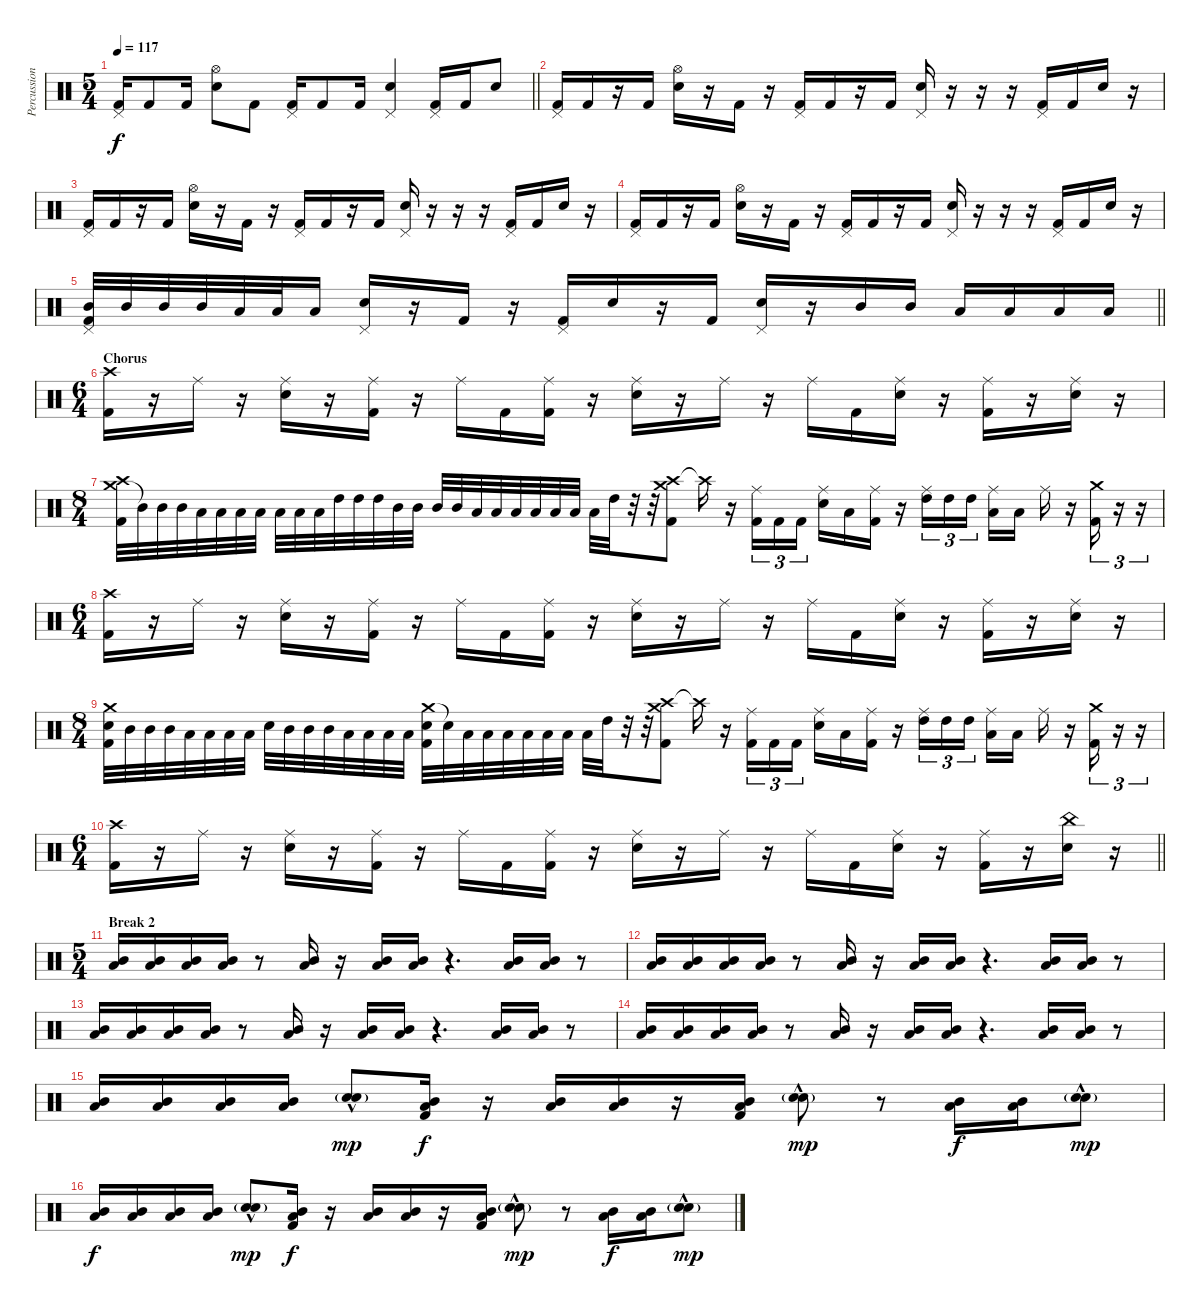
\track ("Percussion" "Percussion") {instrument percussion}
\staff {score}
\articulation defaults
\ts (5 4)
\tempo 117
\clef neutral
\barLineRight lightlight
\ks c
("Pedal Hi-Hat (hit)" "Kick (hit) 2").16{dy f} "Kick (hit) 2".8 "Kick (hit) 2".16 ("Hi-Hat (open)" "Electric Snare (hit)").8 "Kick (hit) 2".8 ("Pedal Hi-Hat (hit)" "Kick (hit) 2").16 "Kick (hit) 2".8 "Kick (hit) 2".16 ("Pedal Hi-Hat (hit)" "Electric Snare (hit)").4 ("Pedal Hi-Hat (hit)" "Kick (hit) 2").16 "Kick (hit) 2".16 "Electric Snare (hit)".8 |
("Pedal Hi-Hat (hit)" "Kick (hit) 2").16 "Kick (hit) 2".16 r.16 "Kick (hit) 2".16 ("Hi-Hat (open)" "Electric Snare (hit)").16 r.16 "Kick (hit) 2".16 r.16 ("Pedal Hi-Hat (hit)" "Kick (hit) 2").16 "Kick (hit) 2".16 r.16 "Kick (hit) 2".16 ("Pedal Hi-Hat (hit)" "Electric Snare (hit)").16 r.16 r.16 r.16 ("Pedal Hi-Hat (hit)" "Kick (hit) 2").16 "Kick (hit) 2".16 "Electric Snare (hit)".16 r.16 |
("Pedal Hi-Hat (hit)" "Kick (hit) 2").16 "Kick (hit) 2".16 r.16 "Kick (hit) 2".16 ("Hi-Hat (open)" "Electric Snare (hit)").16 r.16 "Kick (hit) 2".16 r.16 ("Pedal Hi-Hat (hit)" "Kick (hit) 2").16 "Kick (hit) 2".16 r.16 "Kick (hit) 2".16 ("Pedal Hi-Hat (hit)" "Electric Snare (hit)").16 r.16 r.16 r.16 ("Pedal Hi-Hat (hit)" "Kick (hit) 2").16 "Kick (hit) 2".16 "Electric Snare (hit)".16 r.16 |
("Pedal Hi-Hat (hit)" "Kick (hit) 2").16 "Kick (hit) 2".16 r.16 "Kick (hit) 2".16 ("Hi-Hat (open)" "Electric Snare (hit)").16 r.16 "Kick (hit) 2".16 r.16 ("Pedal Hi-Hat (hit)" "Kick (hit) 2").16 "Kick (hit) 2".16 r.16 "Kick (hit) 2".16 ("Pedal Hi-Hat (hit)" "Electric Snare (hit)").16 r.16 r.16 r.16 ("Pedal Hi-Hat (hit)" "Kick (hit) 2").16 "Kick (hit) 2".16 "Electric Snare (hit)".16 r.16 |
\barLineRight lightlight
("Pedal Hi-Hat (hit)" "Mid Tom (hit)" "Kick (hit) 2").32 "Mid Tom (hit)".32 "Mid Tom (hit)".32 "Mid Tom (hit)".32 "Low Tom (hit)".32 "Low Tom (hit)".32 "Low Tom (hit)".16 ("Pedal Hi-Hat (hit)" "Electric Snare (hit)").16 r.16 "Kick (hit) 2".16 r.16 ("Pedal Hi-Hat (hit)" "Kick (hit) 2").16 "Electric Snare (hit)".16 r.16 "Kick (hit) 2".16 ("Pedal Hi-Hat (hit)" "Electric Snare (hit)").16 r.16 "Mid Tom (hit)".16 "Mid Tom (hit)".16 "Low Tom (hit)".16 "Low Tom (hit)".16 "Low Tom (hit)".16 "Low Tom (hit)".16 |
\ts (6 4)
\section ("" "Chorus")
("Crash high (hit)" "Kick (hit) 2").16 r.16 "Ride (middle)".16 r.16 ("Ride (middle)" "Electric Snare (hit)").16 r.16 ("Ride (middle)" "Kick (hit) 2").16 r.16 "Ride (middle)".16 "Kick (hit) 2".16 ("Ride (middle)" "Kick (hit) 2").16 r.16 ("Ride (middle)" "Electric Snare (hit)").16 r.16 "Ride (middle)".16 r.16 "Ride (middle)".16 "Kick (hit) 2".16 ("Ride (middle)" "Electric Snare (hit)").16 r.16 ("Ride (middle)" "Kick (hit) 2").16 r.16 ("Ride (middle)" "Electric Snare (hit)").16 r.16 |
\ts (8 4)
("Crash medium (hit)" "Crash high (hit)" "Kick (hit) 2").32 "Mid Tom (hit)"{t}.32 "Mid Tom (hit)".32 "Mid Tom (hit)".32 "Low Tom (hit)".32 "Low Tom (hit)".32 "Low Tom (hit)".32 "Low Tom (hit)".32 "Low Floor Tom (hit)".32 "Low Floor Tom (hit)".32 "Low Floor Tom (hit)".32 "High Tom (hit)".32 "High Tom (hit)".32 "High Tom (hit)".32 "Mid Tom (hit)".32 "Mid Tom (hit)".32 "Mid Tom (hit)".32 "Mid Tom (hit)".32 "Low Tom (hit)".32 "Low Tom (hit)".32 "Low Tom (hit)".32 "Low Tom (hit)".32 "Low Floor Tom (hit)".32 "Low Floor Tom (hit)".32 "Low Floor Tom (hit)".32 "High Tom (hit)".32 r.32 r.32 ("Crash high (hit)" "Crash medium (hit)" "Kick (hit) 2").8 "Crash high (hit)"{t}.16 r.16 ("Ride (middle)" "Kick (hit) 2").16{tu (3 2)} "Kick (hit) 2".16{tu (3 2)} "Kick (hit) 2".16{tu (3 2)} ("Ride (middle)" "Electric Snare (hit)").16 "Low Tom (hit)".16 ("Ride (middle)" "Kick (hit) 2").16 r.16 ("Ride (middle)" "High Tom (hit)").16{tu (3 2)} "High Tom (hit)".16{tu (3 2)} "High Tom (hit)".16{tu (3 2) beam splitsecondary} ("Ride (middle)" "Low Tom (hit)").16 "Low Tom (hit)".16 "Ride (middle)".16 r.16 ("Crash medium (hit)" "Kick (hit) 2").16{tu (3 2)} r.16{tu (3 2)} r.16{tu (3 2)} |
\ts (6 4)
("Crash high (hit)" "Kick (hit) 2").16 r.16 "Ride (middle)".16 r.16 ("Ride (middle)" "Electric Snare (hit)").16 r.16 ("Ride (middle)" "Kick (hit) 2").16 r.16 "Ride (middle)".16 "Kick (hit) 2".16 ("Ride (middle)" "Kick (hit) 2").16 r.16 ("Ride (middle)" "Electric Snare (hit)").16 r.16 "Ride (middle)".16 r.16 "Ride (middle)".16 "Kick (hit) 2".16 ("Ride (middle)" "Electric Snare (hit)").16 r.16 ("Ride (middle)" "Kick (hit) 2").16 r.16 ("Ride (middle)" "Electric Snare (hit)").16 r.16 |
\ts (8 4)
("Crash medium (hit)" "Electric Snare (hit)" "Kick (hit) 2").32 "Mid Tom (hit)".32 "Mid Tom (hit)".32 "Mid Tom (hit)".32 "Low Tom (hit)".32 "Low Tom (hit)".32 "Low Tom (hit)".32 "Low Tom (hit)".32 "Electric Snare (hit)".32 "Mid Tom (hit)".32 "Mid Tom (hit)".32 "Mid Tom (hit)".32 "Low Tom (hit)".32 "Low Tom (hit)".32 "Low Tom (hit)".32 "Low Tom (hit)".32 ("Crash medium (hit)" "Electric Snare (hit)" "Kick (hit) 2").32 "Snare (hit)"{t}.32 "Low Tom (hit)".32 "Low Tom (hit)".32 "Low Tom (hit)".32 "Low Tom (hit)".32 "Low Floor Tom (hit)".32 "Low Floor Tom (hit)".32 "Low Floor Tom (hit)".32 "High Tom (hit)".32 r.32 r.32 ("Crash high (hit)" "Crash medium (hit)" "Kick (hit) 2").8 "Crash high (hit)"{t}.16 r.16 ("Ride (middle)" "Kick (hit) 2").16{tu (3 2)} "Kick (hit) 2".16{tu (3 2)} "Kick (hit) 2".16{tu (3 2)} ("Ride (middle)" "Electric Snare (hit)").16 "Low Tom (hit)".16 ("Ride (middle)" "Kick (hit) 2").16 r.16 ("Ride (middle)" "High Tom (hit)").16{tu (3 2)} "High Tom (hit)".16{tu (3 2)} "High Tom (hit)".16{tu (3 2) beam splitsecondary} ("Ride (middle)" "Low Tom (hit)").16 "Low Tom (hit)".16 "Ride (middle)".16 r.16 ("Crash medium (hit)" "Kick (hit) 2").16{tu (3 2)} r.16{tu (3 2)} r.16{tu (3 2)} |
\ts (6 4)
\barLineRight lightlight
("Crash high (hit)" "Kick (hit) 2").16 r.16 "Ride (middle)".16 r.16 ("Ride (middle)" "Electric Snare (hit)").16 r.16 ("Ride (middle)" "Kick (hit) 2").16 r.16 "Ride (middle)".16 "Kick (hit) 2".16 ("Ride (middle)" "Kick (hit) 2").16 r.16 ("Ride (middle)" "Electric Snare (hit)").16 r.16 "Ride (middle)".16 r.16 "Ride (middle)".16 "Kick (hit) 2".16 ("Ride (middle)" "Electric Snare (hit)").16 r.16 ("Ride (middle)" "Kick (hit) 2").16 r.16 ("China (hit)" "Electric Snare (hit)").16 r.16 |
\ts (5 4)
\section ("" "Break 2")
("Mid Tom (hit)" "Low Tom (hit)").16{volume 16} ("Mid Tom (hit)" "Low Tom (hit)").16 ("Mid Tom (hit)" "Low Tom (hit)").16 ("Mid Tom (hit)" "Low Tom (hit)").16 r.8 ("Mid Tom (hit)" "Low Tom (hit)").16 r.16 ("Mid Tom (hit)" "Low Tom (hit)").16 ("Mid Tom (hit)" "Low Tom (hit)").16 r.4{d} ("Mid Tom (hit)" "Low Tom (hit)").16 ("Mid Tom (hit)" "Low Tom (hit)").16 r.8 |
("Mid Tom (hit)" "Low Tom (hit)").16 ("Mid Tom (hit)" "Low Tom (hit)").16 ("Mid Tom (hit)" "Low Tom (hit)").16 ("Mid Tom (hit)" "Low Tom (hit)").16 r.8 ("Mid Tom (hit)" "Low Tom (hit)").16 r.16 ("Mid Tom (hit)" "Low Tom (hit)").16 ("Mid Tom (hit)" "Low Tom (hit)").16 r.4{d} ("Mid Tom (hit)" "Low Tom (hit)").16 ("Mid Tom (hit)" "Low Tom (hit)").16 r.8 |
("Mid Tom (hit)" "Low Tom (hit)").16 ("Mid Tom (hit)" "Low Tom (hit)").16 ("Mid Tom (hit)" "Low Tom (hit)").16 ("Mid Tom (hit)" "Low Tom (hit)").16 r.8 ("Mid Tom (hit)" "Low Tom (hit)").16 r.16 ("Mid Tom (hit)" "Low Tom (hit)").16 ("Mid Tom (hit)" "Low Tom (hit)").16 r.4{d} ("Mid Tom (hit)" "Low Tom (hit)").16 ("Mid Tom (hit)" "Low Tom (hit)").16 r.8 |
("Mid Tom (hit)" "Low Tom (hit)").16 ("Mid Tom (hit)" "Low Tom (hit)").16 ("Mid Tom (hit)" "Low Tom (hit)").16 ("Mid Tom (hit)" "Low Tom (hit)").16 r.8 ("Mid Tom (hit)" "Low Tom (hit)").16 r.16 ("Mid Tom (hit)" "Low Tom (hit)").16 ("Mid Tom (hit)" "Low Tom (hit)").16 r.4{d} ("Mid Tom (hit)" "Low Tom (hit)").16 ("Mid Tom (hit)" "Low Tom (hit)").16 r.8 |
("Mid Tom (hit)" "Low Tom (hit)").16{volume 16} ("Mid Tom (hit)" "Low Tom (hit)").16 ("Mid Tom (hit)" "Low Tom (hit)").16 ("Mid Tom (hit)" "Low Tom (hit)").16 ("Electric Snare (hit)"{hac} "Snare (hit) 2"{g}).8{dy mp} ("Mid Tom (hit)" "Low Tom (hit)" "Kick (hit) 2").16{dy f} r.16 ("Mid Tom (hit)" "Low Tom (hit)").16 ("Mid Tom (hit)" "Low Tom (hit)").16 r.16 ("Mid Tom (hit)" "Low Tom (hit)" "Kick (hit) 2").16 ("Electric Snare (hit)"{hac} "Snare (hit) 2"{g}).8{dy mp} r.8 ("Mid Tom (hit)" "Low Tom (hit)").16{dy f} ("Mid Tom (hit)" "Low Tom (hit)").16 ("Electric Snare (hit)"{hac} "Snare (hit) 2"{g}).8{dy mp} |
("Mid Tom (hit)" "Low Tom (hit)").16{dy f} ("Mid Tom (hit)" "Low Tom (hit)").16 ("Mid Tom (hit)" "Low Tom (hit)").16 ("Mid Tom (hit)" "Low Tom (hit)").16 ("Electric Snare (hit)"{hac} "Snare (hit) 2"{g}).8{dy mp} ("Mid Tom (hit)" "Low Tom (hit)" "Kick (hit) 2").16{dy f} r.16 ("Mid Tom (hit)" "Low Tom (hit)").16 ("Mid Tom (hit)" "Low Tom (hit)").16 r.16 ("Mid Tom (hit)" "Low Tom (hit)" "Kick (hit) 2").16 ("Electric Snare (hit)"{hac} "Snare (hit) 2"{g}).8{dy mp} r.8 ("Mid Tom (hit)" "Low Tom (hit)").16{dy f} ("Mid Tom (hit)" "Low Tom (hit)").16 ("Electric Snare (hit)"{hac} "Snare (hit) 2"{g}).8{dy mp}
